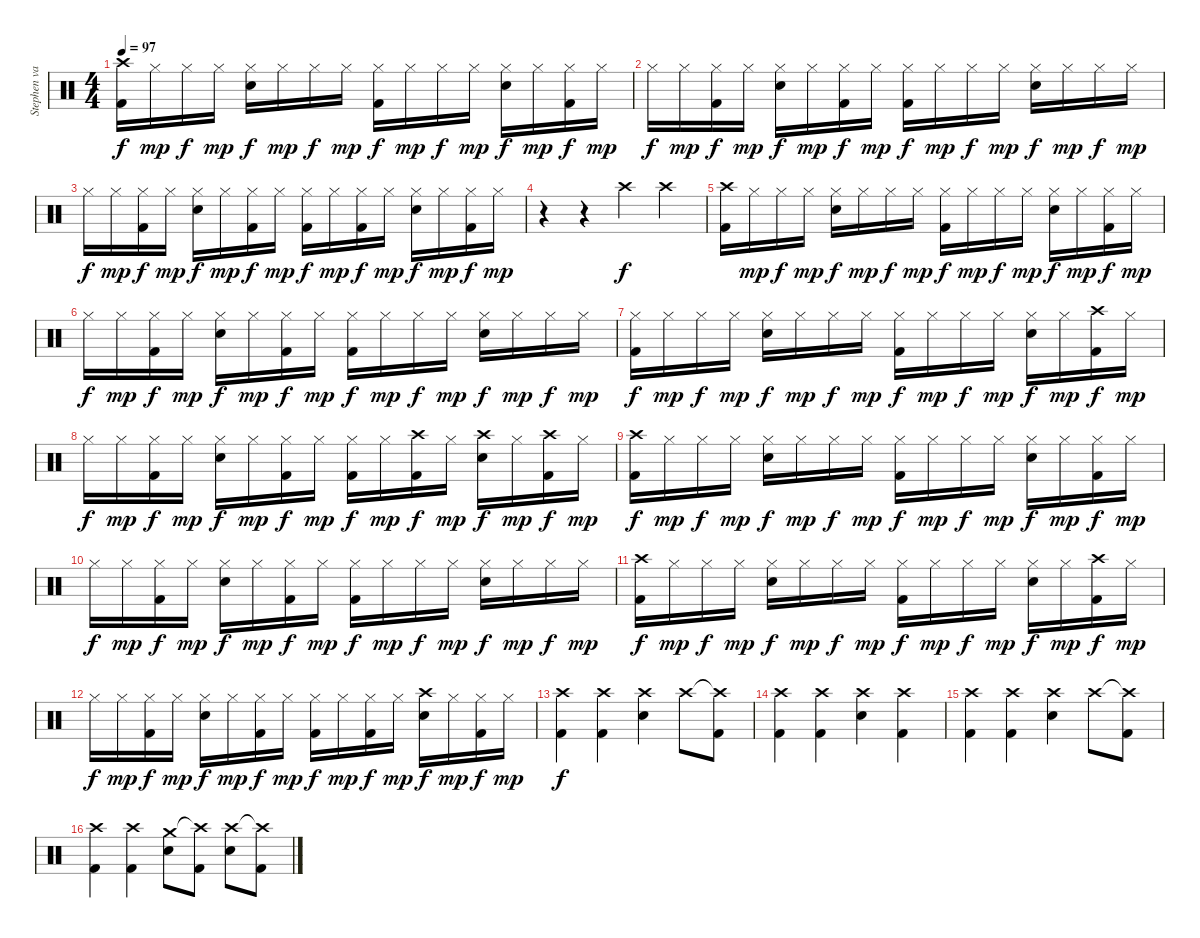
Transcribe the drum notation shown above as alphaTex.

\track ("Stephen van Haestregt (Drums)" "Stephen va") {instrument percussion}
\staff {score}
\articulation defaults
\ts (4 4)
\tempo 97
\clef neutral
\ks c
("Crash high (hit)" "Kick (hit) 2").16{dy f} "Hi-Hat (closed)".16{dy mp} "Hi-Hat (closed)".16{dy f} "Hi-Hat (closed)".16{dy mp} ("Hi-Hat (closed)" "Electric Snare (hit)").16{dy f} "Hi-Hat (closed)".16{dy mp} "Hi-Hat (closed)".16{dy f} "Hi-Hat (closed)".16{dy mp} ("Hi-Hat (closed)" "Kick (hit) 2").16{dy f} "Hi-Hat (closed)".16{dy mp} "Hi-Hat (closed)".16{dy f} "Hi-Hat (closed)".16{dy mp} ("Hi-Hat (closed)" "Electric Snare (hit)").16{dy f} "Hi-Hat (closed)".16{dy mp} ("Hi-Hat (closed)" "Kick (hit) 2").16{dy f} "Hi-Hat (closed)".16{dy mp} |
"Hi-Hat (closed)".16{dy f} "Hi-Hat (closed)".16{dy mp} ("Hi-Hat (closed)" "Kick (hit) 2").16{dy f} "Hi-Hat (closed)".16{dy mp} ("Hi-Hat (closed)" "Electric Snare (hit)").16{dy f} "Hi-Hat (closed)".16{dy mp} ("Hi-Hat (closed)" "Kick (hit) 2").16{dy f} "Hi-Hat (closed)".16{dy mp} ("Hi-Hat (closed)" "Kick (hit) 2").16{dy f} "Hi-Hat (closed)".16{dy mp} "Hi-Hat (closed)".16{dy f} "Hi-Hat (closed)".16{dy mp} ("Hi-Hat (closed)" "Electric Snare (hit)").16{dy f} "Hi-Hat (closed)".16{dy mp} "Hi-Hat (closed)".16{dy f} "Hi-Hat (closed)".16{dy mp} |
"Hi-Hat (closed)".16{dy f} "Hi-Hat (closed)".16{dy mp} ("Hi-Hat (closed)" "Kick (hit) 2").16{dy f} "Hi-Hat (closed)".16{dy mp} ("Hi-Hat (closed)" "Electric Snare (hit)").16{dy f} "Hi-Hat (closed)".16{dy mp} ("Hi-Hat (closed)" "Kick (hit) 2").16{dy f} "Hi-Hat (closed)".16{dy mp} ("Hi-Hat (closed)" "Kick (hit) 2").16{dy f} "Hi-Hat (closed)".16{dy mp} ("Hi-Hat (closed)" "Kick (hit) 2").16{dy f} "Hi-Hat (closed)".16{dy mp} ("Hi-Hat (closed)" "Electric Snare (hit)").16{dy f} "Hi-Hat (closed)".16{dy mp} ("Hi-Hat (closed)" "Kick (hit) 2").16{dy f} "Hi-Hat (closed)".16{dy mp} |
r.4 r.4 "Crash high (hit)".4{dy f} "Crash high (hit)".4 |
("Crash high (hit)" "Kick (hit) 2").16 "Hi-Hat (closed)".16{dy mp} "Hi-Hat (closed)".16{dy f} "Hi-Hat (closed)".16{dy mp} ("Hi-Hat (closed)" "Electric Snare (hit)").16{dy f} "Hi-Hat (closed)".16{dy mp} "Hi-Hat (closed)".16{dy f} "Hi-Hat (closed)".16{dy mp} ("Hi-Hat (closed)" "Kick (hit) 2").16{dy f} "Hi-Hat (closed)".16{dy mp} "Hi-Hat (closed)".16{dy f} "Hi-Hat (closed)".16{dy mp} ("Hi-Hat (closed)" "Electric Snare (hit)").16{dy f} "Hi-Hat (closed)".16{dy mp} ("Hi-Hat (closed)" "Kick (hit) 2").16{dy f} "Hi-Hat (closed)".16{dy mp} |
"Hi-Hat (closed)".16{dy f} "Hi-Hat (closed)".16{dy mp} ("Hi-Hat (closed)" "Kick (hit) 2").16{dy f} "Hi-Hat (closed)".16{dy mp} ("Hi-Hat (closed)" "Electric Snare (hit)").16{dy f} "Hi-Hat (closed)".16{dy mp} ("Hi-Hat (closed)" "Kick (hit) 2").16{dy f} "Hi-Hat (closed)".16{dy mp} ("Hi-Hat (closed)" "Kick (hit) 2").16{dy f} "Hi-Hat (closed)".16{dy mp} "Hi-Hat (closed)".16{dy f} "Hi-Hat (closed)".16{dy mp} ("Hi-Hat (closed)" "Electric Snare (hit)").16{dy f} "Hi-Hat (closed)".16{dy mp} "Hi-Hat (closed)".16{dy f} "Hi-Hat (closed)".16{dy mp} |
("Hi-Hat (closed)" "Kick (hit) 2").16{dy f} "Hi-Hat (closed)".16{dy mp} "Hi-Hat (closed)".16{dy f} "Hi-Hat (closed)".16{dy mp} ("Hi-Hat (closed)" "Electric Snare (hit)").16{dy f} "Hi-Hat (closed)".16{dy mp} "Hi-Hat (closed)".16{dy f} "Hi-Hat (closed)".16{dy mp} ("Hi-Hat (closed)" "Kick (hit) 2").16{dy f} "Hi-Hat (closed)".16{dy mp} "Hi-Hat (closed)".16{dy f} "Hi-Hat (closed)".16{dy mp} ("Hi-Hat (closed)" "Electric Snare (hit)").16{dy f} "Hi-Hat (closed)".16{dy mp} ("Crash high (hit)" "Kick (hit) 2").16{dy f} "Hi-Hat (closed)".16{dy mp} |
"Hi-Hat (closed)".16{dy f} "Hi-Hat (closed)".16{dy mp} ("Hi-Hat (closed)" "Kick (hit) 2").16{dy f} "Hi-Hat (closed)".16{dy mp} ("Hi-Hat (closed)" "Electric Snare (hit)").16{dy f} "Hi-Hat (closed)".16{dy mp} ("Hi-Hat (closed)" "Kick (hit) 2").16{dy f} "Hi-Hat (closed)".16{dy mp} ("Hi-Hat (closed)" "Kick (hit) 2").16{dy f} "Hi-Hat (closed)".16{dy mp} ("Crash high (hit)" "Kick (hit) 2").16{dy f} "Hi-Hat (closed)".16{dy mp} ("Crash high (hit)" "Electric Snare (hit)").16{dy f} "Hi-Hat (closed)".16{dy mp} ("Crash high (hit)" "Kick (hit) 2").16{dy f} "Hi-Hat (closed)".16{dy mp} |
("Crash high (hit)" "Kick (hit) 2").16{dy f} "Hi-Hat (closed)".16{dy mp} "Hi-Hat (closed)".16{dy f} "Hi-Hat (closed)".16{dy mp} ("Hi-Hat (closed)" "Electric Snare (hit)").16{dy f} "Hi-Hat (closed)".16{dy mp} "Hi-Hat (closed)".16{dy f} "Hi-Hat (closed)".16{dy mp} ("Hi-Hat (closed)" "Kick (hit) 2").16{dy f} "Hi-Hat (closed)".16{dy mp} "Hi-Hat (closed)".16{dy f} "Hi-Hat (closed)".16{dy mp} ("Hi-Hat (closed)" "Electric Snare (hit)").16{dy f} "Hi-Hat (closed)".16{dy mp} ("Hi-Hat (closed)" "Kick (hit) 2").16{dy f} "Hi-Hat (closed)".16{dy mp} |
"Hi-Hat (closed)".16{dy f} "Hi-Hat (closed)".16{dy mp} ("Hi-Hat (closed)" "Kick (hit) 2").16{dy f} "Hi-Hat (closed)".16{dy mp} ("Hi-Hat (closed)" "Electric Snare (hit)").16{dy f} "Hi-Hat (closed)".16{dy mp} ("Hi-Hat (closed)" "Kick (hit) 2").16{dy f} "Hi-Hat (closed)".16{dy mp} ("Hi-Hat (closed)" "Kick (hit) 2").16{dy f} "Hi-Hat (closed)".16{dy mp} "Hi-Hat (closed)".16{dy f} "Hi-Hat (closed)".16{dy mp} ("Hi-Hat (closed)" "Electric Snare (hit)").16{dy f} "Hi-Hat (closed)".16{dy mp} "Hi-Hat (closed)".16{dy f} "Hi-Hat (closed)".16{dy mp} |
("Crash high (hit)" "Kick (hit) 2").16{dy f} "Hi-Hat (closed)".16{dy mp} "Hi-Hat (closed)".16{dy f} "Hi-Hat (closed)".16{dy mp} ("Hi-Hat (closed)" "Electric Snare (hit)").16{dy f} "Hi-Hat (closed)".16{dy mp} "Hi-Hat (closed)".16{dy f} "Hi-Hat (closed)".16{dy mp} ("Hi-Hat (closed)" "Kick (hit) 2").16{dy f} "Hi-Hat (closed)".16{dy mp} "Hi-Hat (closed)".16{dy f} "Hi-Hat (closed)".16{dy mp} ("Hi-Hat (closed)" "Electric Snare (hit)").16{dy f} "Hi-Hat (closed)".16{dy mp} ("Crash high (hit)" "Kick (hit) 2").16{dy f} "Hi-Hat (closed)".16{dy mp} |
"Hi-Hat (closed)".16{dy f} "Hi-Hat (closed)".16{dy mp} ("Hi-Hat (closed)" "Kick (hit) 2").16{dy f} "Hi-Hat (closed)".16{dy mp} ("Hi-Hat (closed)" "Electric Snare (hit)").16{dy f} "Hi-Hat (closed)".16{dy mp} ("Hi-Hat (closed)" "Kick (hit) 2").16{dy f} "Hi-Hat (closed)".16{dy mp} ("Hi-Hat (closed)" "Kick (hit) 2").16{dy f} "Hi-Hat (closed)".16{dy mp} ("Hi-Hat (closed)" "Kick (hit) 2").16{dy f} "Hi-Hat (closed)".16{dy mp} ("Crash high (hit)" "Electric Snare (hit)").16{dy f} "Hi-Hat (closed)".16{dy mp} ("Hi-Hat (closed)" "Kick (hit) 2").16{dy f} "Hi-Hat (closed)".16{dy mp} |
("Crash high (hit)" "Kick (hit) 2").4{dy f} ("Crash high (hit)" "Kick (hit) 2").4 ("Crash high (hit)" "Electric Snare (hit)").4 "Crash high (hit)".8 ("Crash high (hit)"{t} "Kick (hit) 2").8 |
("Crash high (hit)" "Kick (hit) 2").4 ("Crash high (hit)" "Kick (hit) 2").4 ("Crash high (hit)" "Electric Snare (hit)").4 ("Crash high (hit)" "Kick (hit) 2").4 |
("Crash high (hit)" "Kick (hit) 2").4 ("Crash high (hit)" "Kick (hit) 2").4 ("Crash high (hit)" "Electric Snare (hit)").4 "Crash high (hit)".8 ("Crash high (hit)"{t} "Kick (hit) 2").8 |
("Crash high (hit)" "Kick (hit) 2").4 ("Crash high (hit)" "Kick (hit) 2").4 ("Crash medium (hit)" "Electric Snare (hit)").8 ("Crash high (hit)"{t} "Kick (hit) 2").8 ("Crash high (hit)" "Electric Snare (hit)").8 ("Crash high (hit)"{t} "Kick (hit) 2").8
